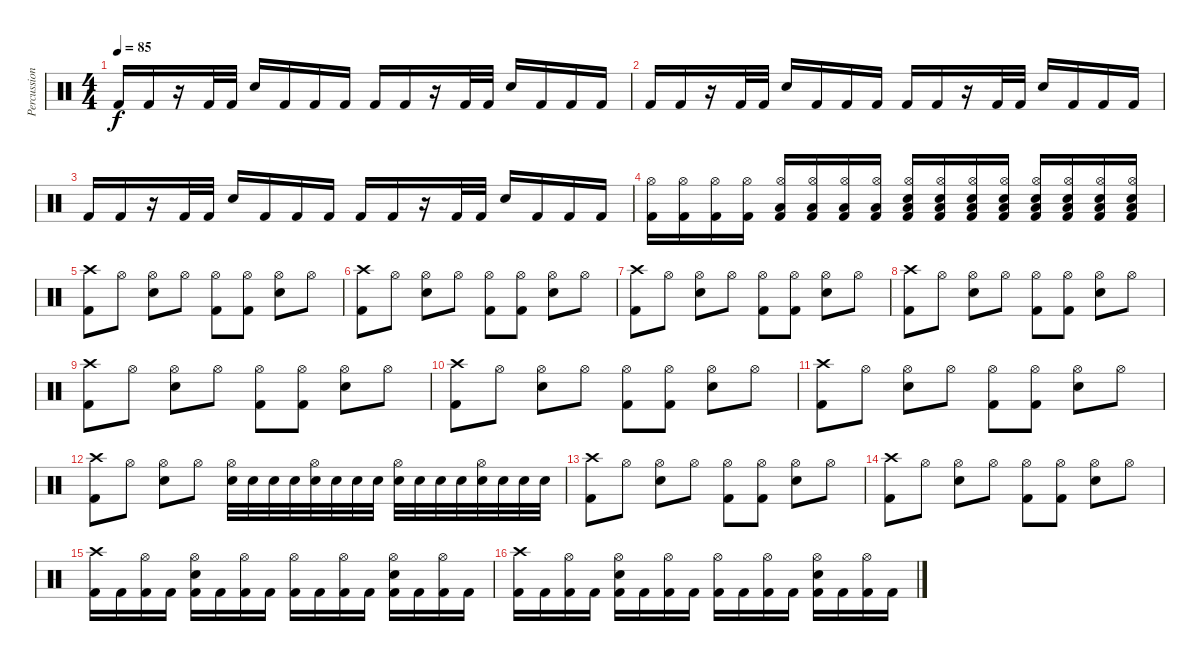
\track ("Percussion" "Percussion") {instrument percussion}
\staff {score}
\articulation defaults
\ts (4 4)
\tempo 85
\clef neutral
\ks c "Kick (hit) 2".16{dy f} "Kick (hit) 2".16
r.16 "Kick (hit) 2".32 "Kick (hit) 2".32 "Snare (hit) 2".16 "Kick (hit) 2".16 "Kick (hit) 2".16 "Kick (hit) 2".16 "Kick (hit) 2".16 "Kick (hit) 2".16 r.16 "Kick (hit) 2".32 "Kick (hit) 2".32 "Snare (hit) 2".16 "Kick (hit) 2".16 "Kick (hit) 2".16 "Kick (hit) 2".16 |
"Kick (hit) 2".16 "Kick (hit) 2".16 r.16 "Kick (hit) 2".32 "Kick (hit) 2".32 "Snare (hit) 2".16 "Kick (hit) 2".16 "Kick (hit) 2".16 "Kick (hit) 2".16 "Kick (hit) 2".16 "Kick (hit) 2".16 r.16 "Kick (hit) 2".32 "Kick (hit) 2".32 "Snare (hit) 2".16 "Kick (hit) 2".16 "Kick (hit) 2".16 "Kick (hit) 2".16 |
"Kick (hit) 2".16 "Kick (hit) 2".16 r.16 "Kick (hit) 2".32 "Kick (hit) 2".32 "Snare (hit) 2".16 "Kick (hit) 2".16 "Kick (hit) 2".16 "Kick (hit) 2".16 "Kick (hit) 2".16 "Kick (hit) 2".16 r.16 "Kick (hit) 2".32 "Kick (hit) 2".32 "Snare (hit) 2".16 "Kick (hit) 2".16 "Kick (hit) 2".16 "Kick (hit) 2".16 |
("Hi-Hat (open)" "Kick (hit) 2").16 ("Hi-Hat (open)" "Kick (hit) 2").16 ("Hi-Hat (open)" "Kick (hit) 2").16 ("Hi-Hat (open)" "Kick (hit) 2").16 ("Hi-Hat (open)" "Low Floor Tom (hit)" "Kick (hit) 2").16 ("Hi-Hat (open)" "Low Floor Tom (hit)" "Kick (hit) 2").16 ("Hi-Hat (open)" "Low Floor Tom (hit)" "Kick (hit) 2").16 ("Hi-Hat (open)" "Low Floor Tom (hit)" "Kick (hit) 2").16 ("Hi-Hat (open)" "Low Floor Tom (hit)" "Snare (hit) 2" "Kick (hit) 2").16 ("Hi-Hat (open)" "Low Floor Tom (hit)" "Snare (hit) 2" "Kick (hit) 2").16 ("Hi-Hat (open)" "Low Floor Tom (hit)" "Snare (hit) 2" "Kick (hit) 2").16 ("Hi-Hat (open)" "Low Floor Tom (hit)" "Snare (hit) 2" "Kick (hit) 2").16 ("Hi-Hat (open)" "Low Floor Tom (hit)" "Snare (hit) 2" "Kick (hit) 2").16 ("Hi-Hat (open)" "Low Floor Tom (hit)" "Snare (hit) 2" "Kick (hit) 2").16 ("Hi-Hat (open)" "Low Floor Tom (hit)" "Snare (hit) 2" "Kick (hit) 2").16 ("Hi-Hat (open)" "Low Floor Tom (hit)" "Snare (hit) 2" "Kick (hit) 2").16 |
("Crash high (hit)" "Kick (hit) 2").8 "Hi-Hat (open)".8 ("Hi-Hat (open)" "Snare (hit) 2").8 "Hi-Hat (open)".8 ("Hi-Hat (open)" "Kick (hit) 2").8 ("Hi-Hat (open)" "Kick (hit) 2").8 ("Hi-Hat (open)" "Snare (hit) 2").8 "Hi-Hat (open)".8 |
("Crash high (hit)" "Kick (hit) 2").8 "Hi-Hat (open)".8 ("Hi-Hat (open)" "Snare (hit) 2").8 "Hi-Hat (open)".8 ("Hi-Hat (open)" "Kick (hit) 2").8 ("Hi-Hat (open)" "Kick (hit) 2").8 ("Hi-Hat (open)" "Snare (hit) 2").8 "Hi-Hat (open)".8 |
("Crash high (hit)" "Kick (hit) 2").8 "Hi-Hat (open)".8 ("Hi-Hat (open)" "Snare (hit) 2").8 "Hi-Hat (open)".8 ("Hi-Hat (open)" "Kick (hit) 2").8 ("Hi-Hat (open)" "Kick (hit) 2").8 ("Hi-Hat (open)" "Snare (hit) 2").8 "Hi-Hat (open)".8 |
("Crash high (hit)" "Kick (hit) 2").8 "Hi-Hat (open)".8 ("Hi-Hat (open)" "Snare (hit) 2").8 "Hi-Hat (open)".8 ("Hi-Hat (open)" "Kick (hit) 2").8 ("Hi-Hat (open)" "Kick (hit) 2").8 ("Hi-Hat (open)" "Snare (hit) 2").8 "Hi-Hat (open)".8 |
("Crash high (hit)" "Kick (hit) 2").8 "Hi-Hat (open)".8 ("Hi-Hat (open)" "Snare (hit) 2").8 "Hi-Hat (open)".8 ("Hi-Hat (open)" "Kick (hit) 2").8 ("Hi-Hat (open)" "Kick (hit) 2").8 ("Hi-Hat (open)" "Snare (hit) 2").8 "Hi-Hat (open)".8 |
("Crash high (hit)" "Kick (hit) 2").8 "Hi-Hat (open)".8 ("Hi-Hat (open)" "Snare (hit) 2").8 "Hi-Hat (open)".8 ("Hi-Hat (open)" "Kick (hit) 2").8 ("Hi-Hat (open)" "Kick (hit) 2").8 ("Hi-Hat (open)" "Snare (hit) 2").8 "Hi-Hat (open)".8 |
("Crash high (hit)" "Kick (hit) 2").8 "Hi-Hat (open)".8 ("Hi-Hat (open)" "Snare (hit) 2").8 "Hi-Hat (open)".8 ("Hi-Hat (open)" "Kick (hit) 2").8 ("Hi-Hat (open)" "Kick (hit) 2").8 ("Hi-Hat (open)" "Snare (hit) 2").8 "Hi-Hat (open)".8 |
("Crash high (hit)" "Kick (hit) 2").8 "Hi-Hat (open)".8 ("Hi-Hat (open)" "Snare (hit) 2").8 "Hi-Hat (open)".8 ("Hi-Hat (open)" "Snare (hit) 2").32 "Snare (hit) 2".32 "Snare (hit) 2".32 "Snare (hit) 2".32 ("Hi-Hat (open)" "Snare (hit) 2").32 "Snare (hit) 2".32 "Snare (hit) 2".32 "Snare (hit) 2".32 ("Hi-Hat (open)" "Snare (hit) 2").32 "Snare (hit) 2".32 "Snare (hit) 2".32 "Snare (hit) 2".32 ("Hi-Hat (open)" "Snare (hit) 2").32 "Snare (hit) 2".32 "Snare (hit) 2".32 "Snare (hit) 2".32 |
("Crash high (hit)" "Kick (hit) 2").8 "Hi-Hat (open)".8 ("Hi-Hat (open)" "Snare (hit) 2").8 "Hi-Hat (open)".8 ("Hi-Hat (open)" "Kick (hit) 2").8 ("Hi-Hat (open)" "Kick (hit) 2").8 ("Hi-Hat (open)" "Snare (hit) 2").8 "Hi-Hat (open)".8 |
("Crash high (hit)" "Kick (hit) 2").8 "Hi-Hat (open)".8 ("Hi-Hat (open)" "Snare (hit) 2").8 "Hi-Hat (open)".8 ("Hi-Hat (open)" "Kick (hit) 2").8 ("Hi-Hat (open)" "Kick (hit) 2").8 ("Hi-Hat (open)" "Snare (hit) 2").8 "Hi-Hat (open)".8 |
("Crash high (hit)" "Kick (hit) 2").16 "Kick (hit) 2".16 ("Hi-Hat (open)" "Kick (hit) 2").16 "Kick (hit) 2".16 ("Hi-Hat (open)" "Snare (hit) 2" "Kick (hit) 2").16 "Kick (hit) 2".16 ("Hi-Hat (open)" "Kick (hit) 2").16 "Kick (hit) 2".16 ("Hi-Hat (open)" "Kick (hit) 2").16 "Kick (hit) 2".16 ("Hi-Hat (open)" "Kick (hit) 2").16 "Kick (hit) 2".16 ("Hi-Hat (open)" "Snare (hit) 2" "Kick (hit) 2").16 "Kick (hit) 2".16 ("Hi-Hat (open)" "Kick (hit) 2").16 "Kick (hit) 2".16 |
("Crash high (hit)" "Kick (hit) 2").16 "Kick (hit) 2".16 ("Hi-Hat (open)" "Kick (hit) 2").16 "Kick (hit) 2".16 ("Hi-Hat (open)" "Snare (hit) 2" "Kick (hit) 2").16 "Kick (hit) 2".16 ("Hi-Hat (open)" "Kick (hit) 2").16 "Kick (hit) 2".16 ("Hi-Hat (open)" "Kick (hit) 2").16 "Kick (hit) 2".16 ("Hi-Hat (open)" "Kick (hit) 2").16 "Kick (hit) 2".16 ("Hi-Hat (open)" "Snare (hit) 2" "Kick (hit) 2").16 "Kick (hit) 2".16 ("Hi-Hat (open)" "Kick (hit) 2").16 "Kick (hit) 2".16
